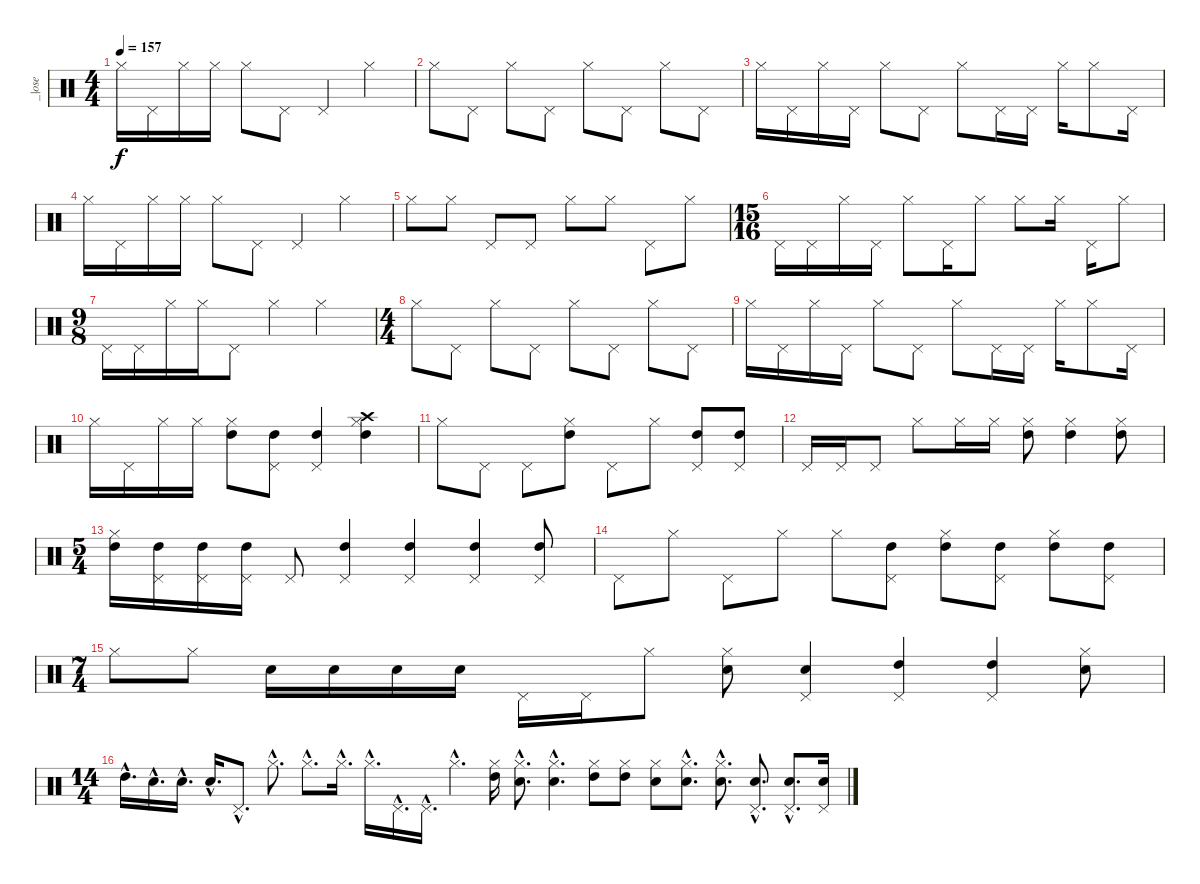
\track ("_|ose" "_|ose") {instrument percussion}
\staff {score}
\articulation defaults
\ts (4 4)
\tempo 157
\clef neutral
\ks c "Hi-Hat (closed)".16{dy f} "Pedal Hi-Hat (hit)".16 "Hi-Hat (closed)".16 "Hi-Hat (closed)".16 "Hi-Hat (closed)".8 "Pedal Hi-Hat (hit)".8 "Pedal Hi-Hat (hit)".4 "Hi-Hat (closed)".4
|
"Hi-Hat (closed)".8 "Pedal Hi-Hat (hit)".8 "Hi-Hat (closed)".8 "Pedal Hi-Hat (hit)".8 "Hi-Hat (closed)".8 "Pedal Hi-Hat (hit)".8 "Hi-Hat (closed)".8 "Pedal Hi-Hat (hit)".8 |
"Hi-Hat (closed)".16 "Pedal Hi-Hat (hit)".16 "Hi-Hat (closed)".16 "Pedal Hi-Hat (hit)".16 "Hi-Hat (closed)".8 "Pedal Hi-Hat (hit)".8 "Hi-Hat (closed)".8 "Pedal Hi-Hat (hit)".16 "Pedal Hi-Hat (hit)".16 "Hi-Hat (closed)".16 "Hi-Hat (closed)".8 "Pedal Hi-Hat (hit)".16 |
"Hi-Hat (closed)".16 "Pedal Hi-Hat (hit)".16 "Hi-Hat (closed)".16 "Hi-Hat (closed)".16 "Hi-Hat (closed)".8 "Pedal Hi-Hat (hit)".8 "Pedal Hi-Hat (hit)".4 "Hi-Hat (closed)".4 |
"Hi-Hat (closed)".8 "Hi-Hat (closed)".8 "Pedal Hi-Hat (hit)".8 "Pedal Hi-Hat (hit)".8 "Hi-Hat (closed)".8 "Hi-Hat (closed)".8 "Pedal Hi-Hat (hit)".8 "Hi-Hat (closed)".8 |
\ts (15 16)
"Pedal Hi-Hat (hit)".16 "Pedal Hi-Hat (hit)".16 "Hi-Hat (closed)".16 "Pedal Hi-Hat (hit)".16 "Hi-Hat (closed)".8 "Pedal Hi-Hat (hit)".16 "Hi-Hat (closed)".8 "Hi-Hat (closed)".8 "Hi-Hat (closed)".16 "Pedal Hi-Hat (hit)".16 "Hi-Hat (closed)".8 |
\ts (9 8)
"Pedal Hi-Hat (hit)".16 "Pedal Hi-Hat (hit)".16 "Hi-Hat (closed)".16 "Hi-Hat (closed)".16 "Pedal Hi-Hat (hit)".8 "Hi-Hat (closed)".4 "Hi-Hat (closed)".2 |
\ts (4 4)
"Hi-Hat (closed)".8 "Pedal Hi-Hat (hit)".8 "Hi-Hat (closed)".8 "Pedal Hi-Hat (hit)".8 "Hi-Hat (closed)".8 "Pedal Hi-Hat (hit)".8 "Hi-Hat (closed)".8 "Pedal Hi-Hat (hit)".8 |
"Hi-Hat (closed)".16 "Pedal Hi-Hat (hit)".16 "Hi-Hat (closed)".16 "Pedal Hi-Hat (hit)".16 "Hi-Hat (closed)".8 "Pedal Hi-Hat (hit)".8 "Hi-Hat (closed)".8 "Pedal Hi-Hat (hit)".16 "Pedal Hi-Hat (hit)".16 "Hi-Hat (closed)".16 "Hi-Hat (closed)".8 "Pedal Hi-Hat (hit)".16 |
"Hi-Hat (closed)".16 "Pedal Hi-Hat (hit)".16 "Hi-Hat (closed)".16 "Hi-Hat (closed)".16 ("High Tom (hit)" "Hi-Hat (closed)").8 ("High Tom (hit)" "Pedal Hi-Hat (hit)").8 ("High Tom (hit)" "Pedal Hi-Hat (hit)").4 ("Crash high (hit)" "High Tom (hit)" "Hi-Hat (closed)").4 |
"Hi-Hat (closed)".8 "Pedal Hi-Hat (hit)".8 "Pedal Hi-Hat (hit)".8 ("High Tom (hit)" "Hi-Hat (closed)").8 "Pedal Hi-Hat (hit)".8 "Hi-Hat (closed)".8 ("High Tom (hit)" "Pedal Hi-Hat (hit)").8 ("High Tom (hit)" "Pedal Hi-Hat (hit)").8 |
"Pedal Hi-Hat (hit)".16 "Pedal Hi-Hat (hit)".16 "Pedal Hi-Hat (hit)".8 "Hi-Hat (closed)".8 "Hi-Hat (closed)".16 "Hi-Hat (closed)".16 ("High Tom (hit)" "Hi-Hat (closed)").8 ("High Tom (hit)" "Hi-Hat (closed)").4 ("High Tom (hit)" "Hi-Hat (closed)").8 |
\ts (5 4)
("High Tom (hit)" "Hi-Hat (closed)").16 ("High Tom (hit)" "Pedal Hi-Hat (hit)").16 ("High Tom (hit)" "Pedal Hi-Hat (hit)").16 ("High Tom (hit)" "Pedal Hi-Hat (hit)").16 "Pedal Hi-Hat (hit)".8 ("High Tom (hit)" "Pedal Hi-Hat (hit)").4 ("High Tom (hit)" "Pedal Hi-Hat (hit)").4 ("High Tom (hit)" "Pedal Hi-Hat (hit)").4 ("High Tom (hit)" "Pedal Hi-Hat (hit)").8 |
"Pedal Hi-Hat (hit)".8 "Hi-Hat (closed)".8 "Pedal Hi-Hat (hit)".8 "Hi-Hat (closed)".8 "Hi-Hat (closed)".8 ("High Tom (hit)" "Pedal Hi-Hat (hit)").8 ("High Tom (hit)" "Hi-Hat (closed)").8 ("High Tom (hit)" "Pedal Hi-Hat (hit)").8 ("High Tom (hit)" "Hi-Hat (closed)").8 ("High Tom (hit)" "Pedal Hi-Hat (hit)").8 |
\ts (7 4)
"Hi-Hat (closed)".8 "Hi-Hat (closed)".8 "Electric Snare (hit)".16 "Electric Snare (hit)".16 "Electric Snare (hit)".16 "Electric Snare (hit)".16 "Pedal Hi-Hat (hit)".16 "Pedal Hi-Hat (hit)".16 "Hi-Hat (closed)".8 ("Hi-Hat (closed)" "Electric Snare (hit)").8 ("Pedal Hi-Hat (hit)" "Electric Snare (hit)").4 ("Pedal Hi-Hat (hit)" "High Tom (hit)").4 ("Pedal Hi-Hat (hit)" "High Tom (hit)").4 ("Hi-Hat (closed)" "Electric Snare (hit)").8 |
\ts (14 4)
"High Tom (hit)"{hac}.16{d} "Electric Snare (hit)"{hac}.16{d} "Electric Snare (hit)"{hac}.16{d} "Electric Snare (hit)"{hac}.16{d} "Pedal Hi-Hat (hit)"{hac}.8{d} "Hi-Hat (closed)"{hac}.8{d} "Hi-Hat (closed)"{hac}.8{d} "Hi-Hat (closed)"{hac}.16{d} "Hi-Hat (closed)"{hac}.16{d} "Pedal Hi-Hat (hit)"{hac}.16{d} "Pedal Hi-Hat (hit)"{hac}.16{d} "Hi-Hat (closed)"{hac}.4{d} ("High Tom (hit)" "Hi-Hat (closed)").16 ("Electric Snare (hit)"{hac} "Hi-Hat (closed)"{hac}).8{d} ("Electric Snare (hit)"{hac} "Hi-Hat (closed)"{hac}).4{d} ("High Tom (hit)" "Hi-Hat (closed)").8 ("High Tom (hit)" "Hi-Hat (closed)").8 ("Electric Snare (hit)" "Hi-Hat (closed)").8 ("Electric Snare (hit)"{hac} "Hi-Hat (closed)"{hac}).8{d} ("Electric Snare (hit)"{hac} "Hi-Hat (closed)"{hac}).8{d} ("Electric Snare (hit)"{hac} "Pedal Hi-Hat (hit)"{hac}).8{d} ("Electric Snare (hit)"{hac} "Pedal Hi-Hat (hit)"{hac}).8{d} ("Electric Snare (hit)" "Pedal Hi-Hat (hit)").16
